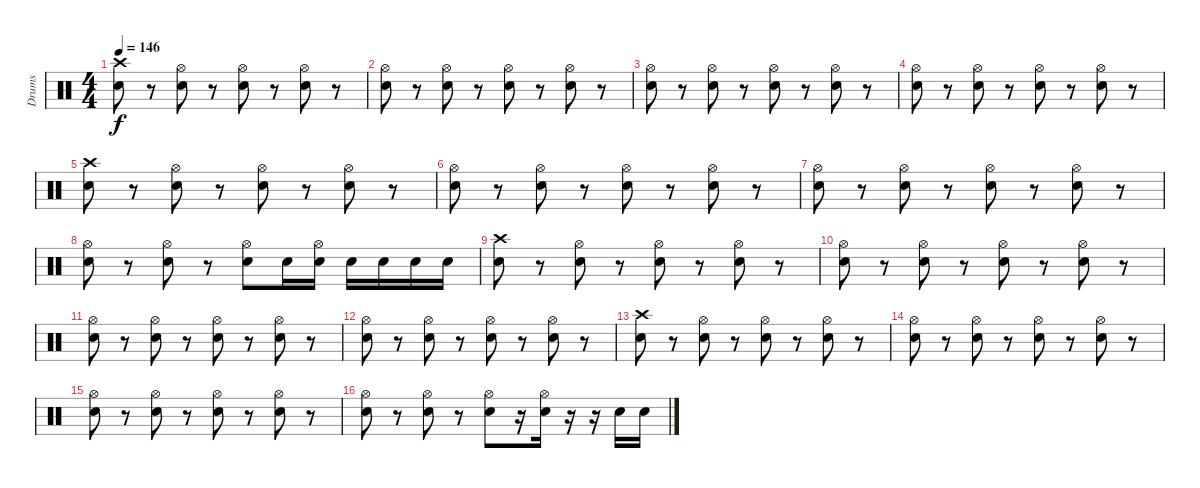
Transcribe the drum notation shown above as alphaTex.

\track ("Drums" "Drums") {instrument percussion}
\staff {score}
\articulation defaults
\ts (4 4)
\tempo 146
\clef neutral
\ks c
("Crash high (hit)" "Snare (hit) 2").8{dy f} r.8 ("Hi-Hat (open)" "Snare (hit) 2").8 r.8 ("Hi-Hat (open)" "Snare (hit) 2").8 r.8 ("Hi-Hat (open)" "Snare (hit) 2").8 r.8 |
("Hi-Hat (open)" "Snare (hit) 2").8 r.8 ("Hi-Hat (open)" "Snare (hit) 2").8 r.8 ("Hi-Hat (open)" "Snare (hit) 2").8 r.8 ("Hi-Hat (open)" "Snare (hit) 2").8 r.8 |
("Hi-Hat (open)" "Snare (hit) 2").8 r.8 ("Hi-Hat (open)" "Snare (hit) 2").8 r.8 ("Hi-Hat (open)" "Snare (hit) 2").8 r.8 ("Hi-Hat (open)" "Snare (hit) 2").8 r.8 |
("Hi-Hat (open)" "Snare (hit) 2").8 r.8 ("Hi-Hat (open)" "Snare (hit) 2").8 r.8 ("Hi-Hat (open)" "Snare (hit) 2").8 r.8 ("Hi-Hat (open)" "Snare (hit) 2").8 r.8 |
("Crash high (hit)" "Snare (hit) 2").8 r.8 ("Hi-Hat (open)" "Snare (hit) 2").8 r.8 ("Hi-Hat (open)" "Snare (hit) 2").8 r.8 ("Hi-Hat (open)" "Snare (hit) 2").8 r.8 |
("Hi-Hat (open)" "Snare (hit) 2").8 r.8 ("Hi-Hat (open)" "Snare (hit) 2").8 r.8 ("Hi-Hat (open)" "Snare (hit) 2").8 r.8 ("Hi-Hat (open)" "Snare (hit) 2").8 r.8 |
("Hi-Hat (open)" "Snare (hit) 2").8 r.8 ("Hi-Hat (open)" "Snare (hit) 2").8 r.8 ("Hi-Hat (open)" "Snare (hit) 2").8 r.8 ("Hi-Hat (open)" "Snare (hit) 2").8 r.8 |
("Hi-Hat (open)" "Snare (hit) 2").8 r.8 ("Hi-Hat (open)" "Snare (hit) 2").8 r.8 ("Hi-Hat (open)" "Snare (hit) 2").8 "Snare (hit) 2".16 ("Hi-Hat (open)" "Snare (hit) 2").16 "Snare (hit) 2".16 "Snare (hit) 2".16 "Snare (hit) 2".16 "Snare (hit) 2".16 |
("Crash high (hit)" "Snare (hit) 2").8 r.8 ("Hi-Hat (open)" "Snare (hit) 2").8 r.8 ("Hi-Hat (open)" "Snare (hit) 2").8 r.8 ("Hi-Hat (open)" "Snare (hit) 2").8 r.8 |
("Hi-Hat (open)" "Snare (hit) 2").8 r.8 ("Hi-Hat (open)" "Snare (hit) 2").8 r.8 ("Hi-Hat (open)" "Snare (hit) 2").8 r.8 ("Hi-Hat (open)" "Snare (hit) 2").8 r.8 |
("Hi-Hat (open)" "Snare (hit) 2").8 r.8 ("Hi-Hat (open)" "Snare (hit) 2").8 r.8 ("Hi-Hat (open)" "Snare (hit) 2").8 r.8 ("Hi-Hat (open)" "Snare (hit) 2").8 r.8 |
("Hi-Hat (open)" "Snare (hit) 2").8 r.8 ("Hi-Hat (open)" "Snare (hit) 2").8 r.8 ("Hi-Hat (open)" "Snare (hit) 2").8 r.8 ("Hi-Hat (open)" "Snare (hit) 2").8 r.8 |
("Crash high (hit)" "Snare (hit) 2").8 r.8 ("Hi-Hat (open)" "Snare (hit) 2").8 r.8 ("Hi-Hat (open)" "Snare (hit) 2").8 r.8 ("Hi-Hat (open)" "Snare (hit) 2").8 r.8 |
("Hi-Hat (open)" "Snare (hit) 2").8 r.8 ("Hi-Hat (open)" "Snare (hit) 2").8 r.8 ("Hi-Hat (open)" "Snare (hit) 2").8 r.8 ("Hi-Hat (open)" "Snare (hit) 2").8 r.8 |
("Hi-Hat (open)" "Snare (hit) 2").8 r.8 ("Hi-Hat (open)" "Snare (hit) 2").8 r.8 ("Hi-Hat (open)" "Snare (hit) 2").8 r.8 ("Hi-Hat (open)" "Snare (hit) 2").8 r.8 |
("Hi-Hat (open)" "Snare (hit) 2").8 r.8 ("Hi-Hat (open)" "Snare (hit) 2").8 r.8 ("Hi-Hat (open)" "Snare (hit) 2").8 r.16 ("Hi-Hat (open)" "Snare (hit) 2").16 r.16 r.16 "Snare (hit) 2".16 "Snare (hit) 2".16
